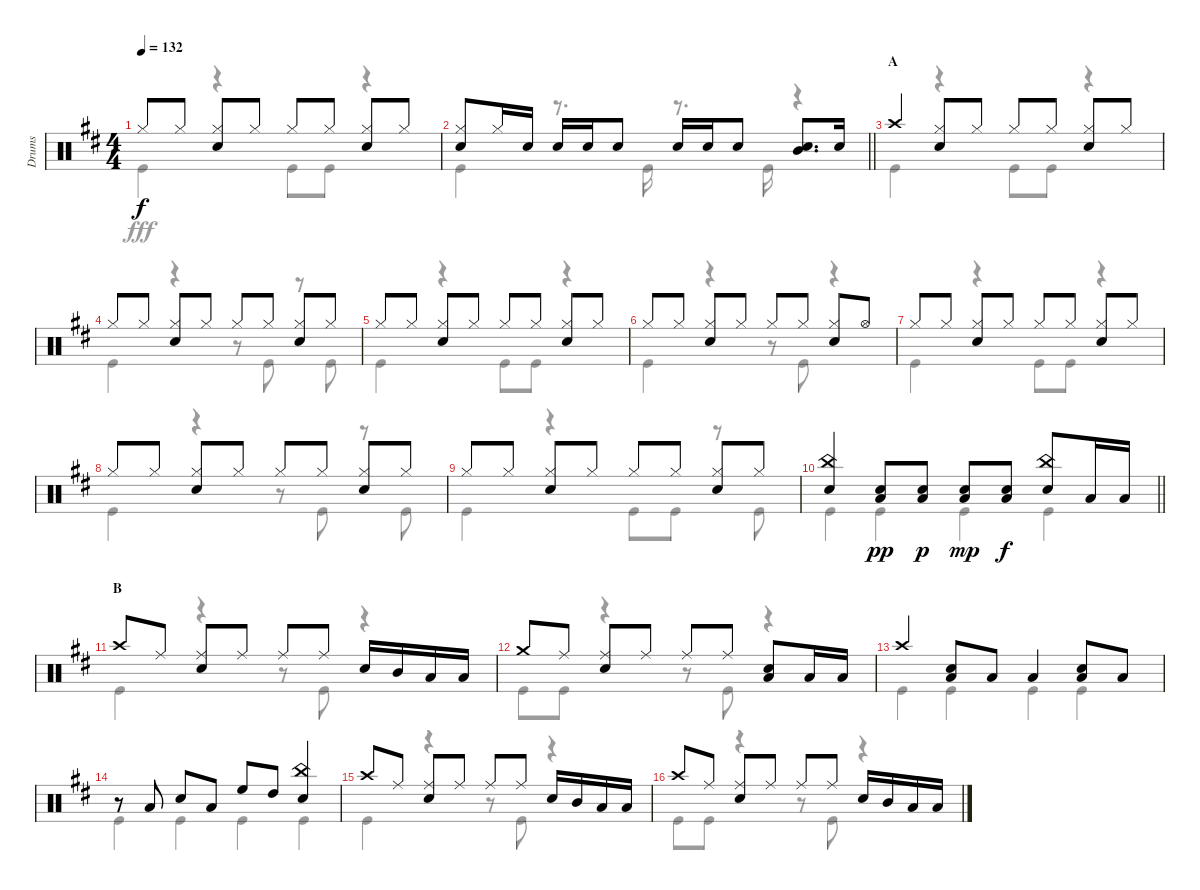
\track ("Drums" "Drums") {instrument percussion}
\staff {score}
\articulation defaults
\voice
\ts (4 4)
\tempo 132
\clef neutral
\ks d "Hi-Hat (closed)".8{dy f} "Hi-Hat (closed)".8
("Hi-Hat (closed)" "Snare (hit) 2").8 "Hi-Hat (closed)".8 "Hi-Hat (closed)".8 "Hi-Hat (closed)".8 ("Hi-Hat (closed)" "Snare (hit) 2").8 "Hi-Hat (closed)".8 |
\barLineRight lightlight
("Hi-Hat (closed)" "Snare (hit) 2").8 "Hi-Hat (closed)".16 "Snare (hit) 2".16 "Snare (hit) 2".16 "Snare (hit) 2".16 "Snare (hit) 2".8 "Snare (hit) 2".16 "Snare (hit) 2".16 "Snare (hit) 2".8 ("Snare (hit) 2" "Mid Tom (hit)").8{d} "Snare (hit) 2".16 |
\section ("" "A")
"Crash high (hit)".4 ("Hi-Hat (closed)" "Snare (hit) 2").8 "Hi-Hat (closed)".8 "Hi-Hat (closed)".8 "Hi-Hat (closed)".8 ("Hi-Hat (closed)" "Snare (hit) 2").8 "Hi-Hat (closed)".8 |
"Hi-Hat (closed)".8 "Hi-Hat (closed)".8 ("Hi-Hat (closed)" "Snare (hit) 2").8 "Hi-Hat (closed)".8 "Hi-Hat (closed)".8 "Hi-Hat (closed)".8 ("Hi-Hat (closed)" "Snare (hit) 2").8 "Hi-Hat (closed)".8 |
"Hi-Hat (closed)".8 "Hi-Hat (closed)".8 ("Hi-Hat (closed)" "Snare (hit) 2").8 "Hi-Hat (closed)".8 "Hi-Hat (closed)".8 "Hi-Hat (closed)".8 ("Hi-Hat (closed)" "Snare (hit) 2").8 "Hi-Hat (closed)".8 |
"Hi-Hat (closed)".8 "Hi-Hat (closed)".8 ("Hi-Hat (closed)" "Snare (hit) 2").8 "Hi-Hat (closed)".8 "Hi-Hat (closed)".8 "Hi-Hat (closed)".8 ("Hi-Hat (closed)" "Snare (hit) 2").8 "Hi-Hat (open)".8 |
"Hi-Hat (closed)".8 "Hi-Hat (closed)".8 ("Hi-Hat (closed)" "Snare (hit) 2").8 "Hi-Hat (closed)".8 "Hi-Hat (closed)".8 "Hi-Hat (closed)".8 ("Hi-Hat (closed)" "Snare (hit) 2").8 "Hi-Hat (closed)".8 |
"Hi-Hat (closed)".8 "Hi-Hat (closed)".8 ("Hi-Hat (closed)" "Snare (hit) 2").8 "Hi-Hat (closed)".8 "Hi-Hat (closed)".8 "Hi-Hat (closed)".8 ("Hi-Hat (closed)" "Snare (hit) 2").8 "Hi-Hat (closed)".8 |
"Hi-Hat (closed)".8 "Hi-Hat (closed)".8 ("Hi-Hat (closed)" "Snare (hit) 2").8 "Hi-Hat (closed)".8 "Hi-Hat (closed)".8 "Hi-Hat (closed)".8 ("Hi-Hat (closed)" "Snare (hit) 2").8 "Hi-Hat (closed)".8 |
\barLineRight lightlight
("China (hit)" "Snare (hit) 2").4 ("Snare (hit) 2" "Low Tom (hit)").8{dy pp} ("Snare (hit) 2" "Low Tom (hit)").8{dy p} ("Snare (hit) 2" "Low Tom (hit)").8{dy mp} ("Snare (hit) 2" "Low Tom (hit)").8{dy f} ("China (hit)" "Snare (hit) 2").8 "Low Tom (hit)".16 "Low Tom (hit)".16 |
\section ("" "B")
"Crash high (hit)".8 "Ride (middle)".8 ("Ride (middle)" "Snare (hit) 2").8 "Ride (middle)".8 "Ride (middle)".8 "Ride (middle)".8 "Snare (hit) 2".16 "Mid Tom (hit)".16 "Low Tom (hit)".16 "Low Tom (hit)".16 |
"Crash medium (hit)".8 "Ride (middle)".8 ("Ride (middle)" "Snare (hit) 2").8 "Ride (middle)".8 "Ride (middle)".8 "Ride (middle)".8 ("Snare (hit) 2" "Low Tom (hit)").8 "Low Tom (hit)".16 "Low Tom (hit)".16 |
"Crash high (hit)".4 ("Snare (hit) 2" "Low Tom (hit)").8 "Low Tom (hit)".8 "Low Tom (hit)".4 ("Low Tom (hit)" "Snare (hit) 2").8 "Low Tom (hit)".8 |
r.8 "Low Tom (hit)".8 "Snare (hit) 2".8 "Low Tom (hit)".8 "High Floor Tom (hit)".8 "High Tom (hit)".8 ("China (hit)" "Snare (hit) 2").4 |
"Crash high (hit)".8 "Ride (middle)".8 ("Ride (middle)" "Snare (hit) 2").8 "Ride (middle)".8 "Ride (middle)".8 "Ride (middle)".8 "Snare (hit) 2".16 "Mid Tom (hit)".16 "Low Tom (hit)".16 "Low Tom (hit)".16 |
"Crash high (hit)".8 "Ride (middle)".8 ("Ride (middle)" "Snare (hit) 2").8 "Ride (middle)".8 "Ride (middle)".8 "Ride (middle)".8 "Snare (hit) 2".16 "Mid Tom (hit)".16 "Low Tom (hit)".16 "Low Tom (hit)".16
\voice
\clef neutral
\ottava regular
\simile none
\ks d "Kick (hit)".4{dy fff}
r.4 "Kick (hit)".8 "Kick (hit)".8 r.4 |
\barLineRight lightlight "Kick (hit)".4
r.8{d} "Kick (hit)".16 r.8{d} "Kick (hit)".16 r.4 |
"Kick (hit)".4 r.4 "Kick (hit)".8 "Kick (hit)".8 r.4 |
"Kick (hit)".4 r.4 r.8 "Kick (hit)".8 r.8 "Kick (hit)".8 |
"Kick (hit)".4 r.4 "Kick (hit)".8 "Kick (hit)".8 r.4 |
"Kick (hit)".4 r.4 r.8 "Kick (hit)".8 r.4 |
"Kick (hit)".4 r.4 "Kick (hit)".8 "Kick (hit)".8 r.4 |
"Kick (hit)".4 r.4 r.8 "Kick (hit)".8 r.8 "Kick (hit)".8 |
"Kick (hit)".4 r.4 "Kick (hit)".8 "Kick (hit)".8 r.8 "Kick (hit)".8 |
\barLineRight lightlight "Kick (hit)".4 "Kick (hit)".4 "Kick (hit)".4 "Kick (hit)".4
|
"Kick (hit)".4 r.4 r.8 "Kick (hit)".8 r.4 |
"Kick (hit)".8 "Kick (hit)".8 r.4 r.8 "Kick (hit)".8 r.4 |
"Kick (hit)".4 "Kick (hit)".4 "Kick (hit)".4 "Kick (hit)".4 |
"Kick (hit)".4 "Kick (hit)".4 "Kick (hit)".4 "Kick (hit)".4 |
"Kick (hit)".4 r.4 r.8 "Kick (hit)".8 r.4 |
"Kick (hit)".8 "Kick (hit)".8 r.4 r.8 "Kick (hit)".8 r.4
